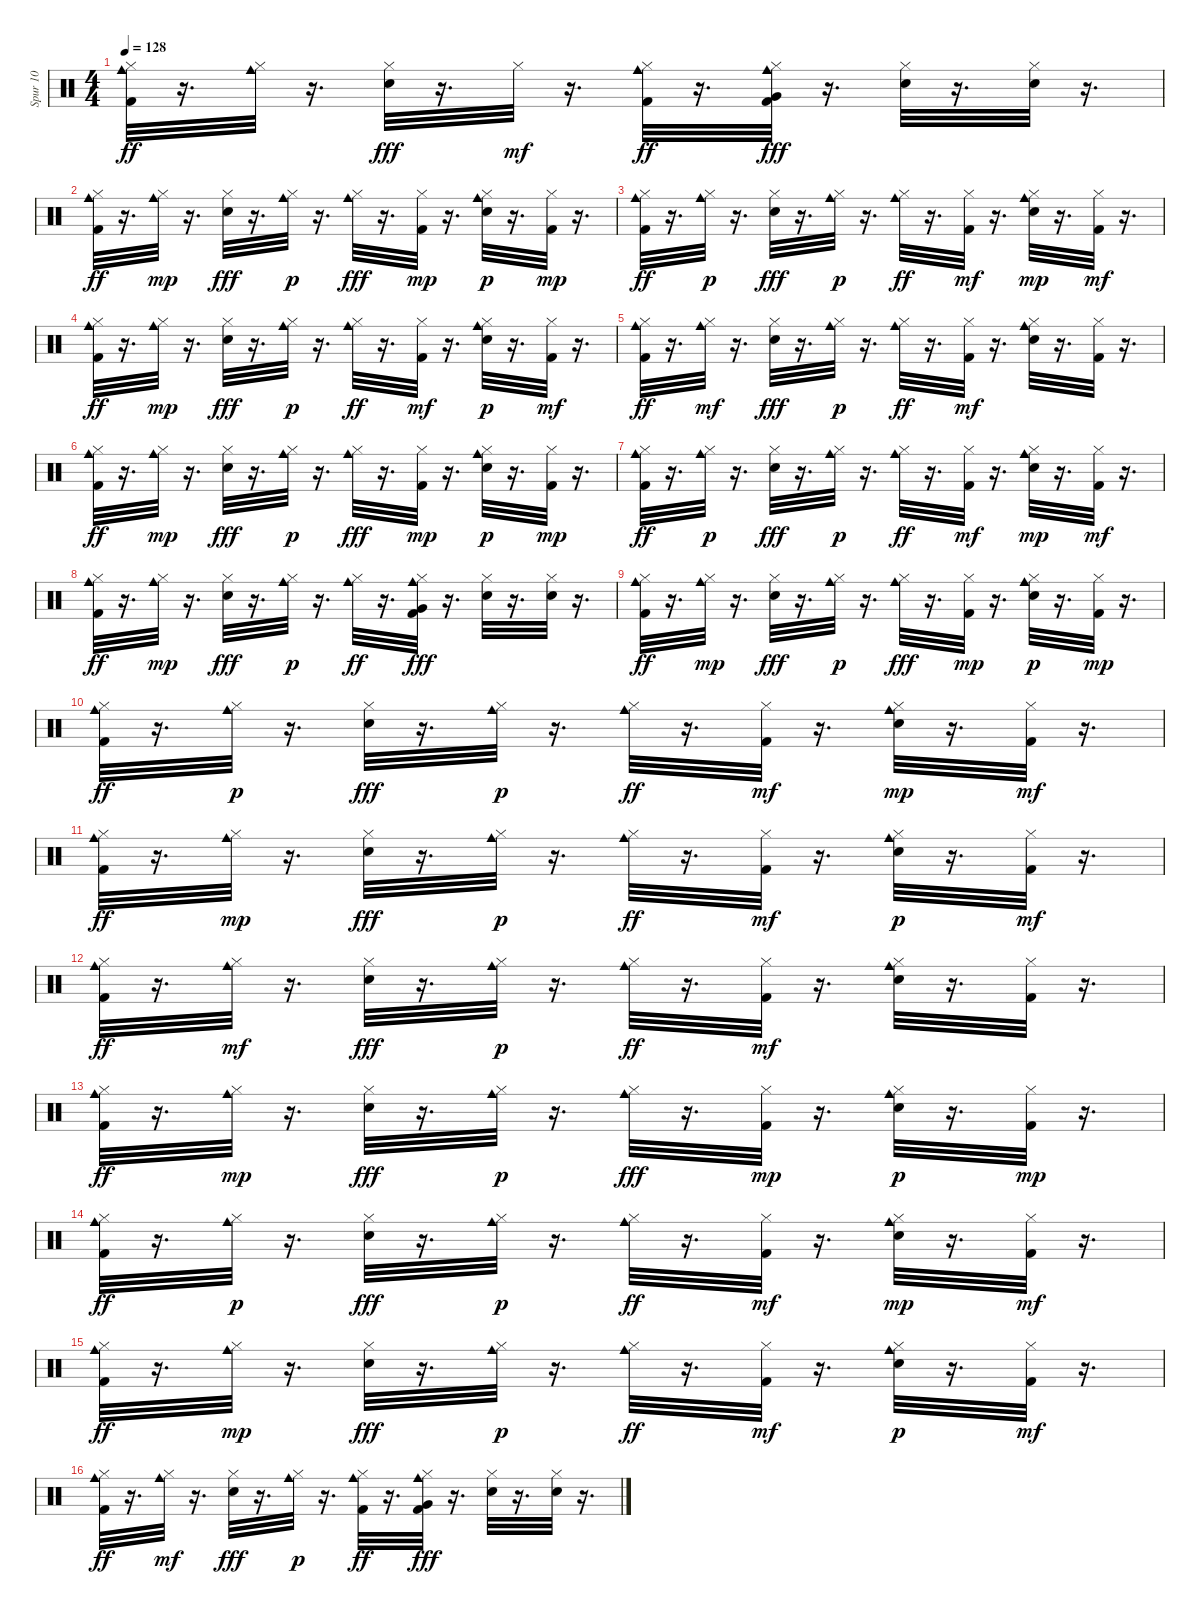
\track ("Spur 10" "Spur 10") {instrument percussion}
\staff {score}
\articulation defaults
\ts (4 4)
\tempo 128
\clef neutral
\ks c
("Kick (hit) 2" "Hi-Hat (closed)" "Cowbell medium (hit)").32{dy ff} r.16{d} ("Hi-Hat (closed)" "Cowbell medium (hit)").32 r.16{d} ("Electric Snare (hit)" "Hi-Hat (closed)").32{dy fff} r.16{d} "Hi-Hat (closed)".32{dy mf} r.16{d} ("Kick (hit) 2" "Hi-Hat (closed)" "Cowbell medium (hit)").32{dy ff} r.16{d} ("Kick (hit) 2" "Hi-Hat (closed)" "Cowbell medium (hit)" "Very Low Tom (hit)").32{dy fff} r.16{d} ("Electric Snare (hit)" "Hi-Hat (closed)").32 r.16{d} ("Hi-Hat (closed)" "Electric Snare (hit)").32 r.16{d} |
("Kick (hit) 2" "Hi-Hat (closed)" "Cowbell medium (hit)").32{dy ff} r.16{d} ("Hi-Hat (closed)" "Cowbell medium (hit)").32{dy mp} r.16{d} ("Electric Snare (hit)" "Hi-Hat (closed)").32{dy fff} r.16{d} ("Hi-Hat (closed)" "Cowbell medium (hit)").32{dy p} r.16{d} ("Hi-Hat (closed)" "Cowbell medium (hit)").32{dy fff} r.16{d} ("Kick (hit) 2" "Hi-Hat (closed)").32{dy mp} r.16{d} ("Electric Snare (hit)" "Hi-Hat (closed)" "Cowbell medium (hit)").32{dy p} r.16{d} ("Kick (hit) 2" "Hi-Hat (closed)").32{dy mp} r.16{d} |
("Kick (hit) 2" "Hi-Hat (closed)" "Cowbell medium (hit)").32{dy ff} r.16{d} ("Hi-Hat (closed)" "Cowbell medium (hit)").32{dy p} r.16{d} ("Electric Snare (hit)" "Hi-Hat (closed)").32{dy fff} r.16{d} ("Hi-Hat (closed)" "Cowbell medium (hit)").32{dy p} r.16{d} ("Hi-Hat (closed)" "Cowbell medium (hit)").32{dy ff} r.16{d} ("Kick (hit) 2" "Hi-Hat (closed)").32{dy mf} r.16{d} ("Electric Snare (hit)" "Hi-Hat (closed)" "Cowbell medium (hit)").32{dy mp} r.16{d} ("Kick (hit) 2" "Hi-Hat (closed)").32{dy mf} r.16{d} |
("Kick (hit) 2" "Hi-Hat (closed)" "Cowbell medium (hit)").32{dy ff} r.16{d} ("Hi-Hat (closed)" "Cowbell medium (hit)").32{dy mp} r.16{d} ("Electric Snare (hit)" "Hi-Hat (closed)").32{dy fff} r.16{d} ("Hi-Hat (closed)" "Cowbell medium (hit)").32{dy p} r.16{d} ("Hi-Hat (closed)" "Cowbell medium (hit)").32{dy ff} r.16{d} ("Kick (hit) 2" "Hi-Hat (closed)").32{dy mf} r.16{d} ("Electric Snare (hit)" "Hi-Hat (closed)" "Cowbell medium (hit)").32{dy p} r.16{d} ("Kick (hit) 2" "Hi-Hat (closed)").32{dy mf} r.16{d} |
("Kick (hit) 2" "Hi-Hat (closed)" "Cowbell medium (hit)").32{dy ff} r.16{d} ("Hi-Hat (closed)" "Cowbell medium (hit)").32{dy mf} r.16{d} ("Electric Snare (hit)" "Hi-Hat (closed)").32{dy fff} r.16{d} ("Hi-Hat (closed)" "Cowbell medium (hit)").32{dy p} r.16{d} ("Hi-Hat (closed)" "Cowbell medium (hit)").32{dy ff} r.16{d} ("Kick (hit) 2" "Hi-Hat (closed)").32{dy mf} r.16{d} ("Electric Snare (hit)" "Hi-Hat (closed)" "Cowbell medium (hit)").32 r.16{d} ("Kick (hit) 2" "Hi-Hat (closed)").32 r.16{d} |
("Kick (hit) 2" "Hi-Hat (closed)" "Cowbell medium (hit)").32{dy ff} r.16{d} ("Hi-Hat (closed)" "Cowbell medium (hit)").32{dy mp} r.16{d} ("Electric Snare (hit)" "Hi-Hat (closed)").32{dy fff} r.16{d} ("Hi-Hat (closed)" "Cowbell medium (hit)").32{dy p} r.16{d} ("Hi-Hat (closed)" "Cowbell medium (hit)").32{dy fff} r.16{d} ("Kick (hit) 2" "Hi-Hat (closed)").32{dy mp} r.16{d} ("Electric Snare (hit)" "Hi-Hat (closed)" "Cowbell medium (hit)").32{dy p} r.16{d} ("Kick (hit) 2" "Hi-Hat (closed)").32{dy mp} r.16{d} |
("Kick (hit) 2" "Hi-Hat (closed)" "Cowbell medium (hit)").32{dy ff} r.16{d} ("Hi-Hat (closed)" "Cowbell medium (hit)").32{dy p} r.16{d} ("Electric Snare (hit)" "Hi-Hat (closed)").32{dy fff} r.16{d} ("Hi-Hat (closed)" "Cowbell medium (hit)").32{dy p} r.16{d} ("Hi-Hat (closed)" "Cowbell medium (hit)").32{dy ff} r.16{d} ("Kick (hit) 2" "Hi-Hat (closed)").32{dy mf} r.16{d} ("Electric Snare (hit)" "Hi-Hat (closed)" "Cowbell medium (hit)").32{dy mp} r.16{d} ("Kick (hit) 2" "Hi-Hat (closed)").32{dy mf} r.16{d} |
("Kick (hit) 2" "Hi-Hat (closed)" "Cowbell medium (hit)").32{dy ff} r.16{d} ("Hi-Hat (closed)" "Cowbell medium (hit)").32{dy mp} r.16{d} ("Electric Snare (hit)" "Hi-Hat (closed)").32{dy fff} r.16{d} ("Hi-Hat (closed)" "Cowbell medium (hit)").32{dy p} r.16{d} ("Hi-Hat (closed)" "Cowbell medium (hit)").32{dy ff} r.16{d} ("Kick (hit) 2" "Hi-Hat (closed)" "Cowbell medium (hit)" "Very Low Tom (hit)").32{dy fff} r.16{d} ("Electric Snare (hit)" "Hi-Hat (closed)").32 r.16{d} ("Hi-Hat (closed)" "Electric Snare (hit)").32 r.16{d} |
("Kick (hit) 2" "Hi-Hat (closed)" "Cowbell medium (hit)").32{dy ff} r.16{d} ("Hi-Hat (closed)" "Cowbell medium (hit)").32{dy mp} r.16{d} ("Electric Snare (hit)" "Hi-Hat (closed)").32{dy fff} r.16{d} ("Hi-Hat (closed)" "Cowbell medium (hit)").32{dy p} r.16{d} ("Hi-Hat (closed)" "Cowbell medium (hit)").32{dy fff} r.16{d} ("Kick (hit) 2" "Hi-Hat (closed)").32{dy mp} r.16{d} ("Electric Snare (hit)" "Hi-Hat (closed)" "Cowbell medium (hit)").32{dy p} r.16{d} ("Kick (hit) 2" "Hi-Hat (closed)").32{dy mp} r.16{d} |
("Kick (hit) 2" "Hi-Hat (closed)" "Cowbell medium (hit)").32{dy ff} r.16{d} ("Hi-Hat (closed)" "Cowbell medium (hit)").32{dy p} r.16{d} ("Electric Snare (hit)" "Hi-Hat (closed)").32{dy fff} r.16{d} ("Hi-Hat (closed)" "Cowbell medium (hit)").32{dy p} r.16{d} ("Hi-Hat (closed)" "Cowbell medium (hit)").32{dy ff} r.16{d} ("Kick (hit) 2" "Hi-Hat (closed)").32{dy mf} r.16{d} ("Electric Snare (hit)" "Hi-Hat (closed)" "Cowbell medium (hit)").32{dy mp} r.16{d} ("Kick (hit) 2" "Hi-Hat (closed)").32{dy mf} r.16{d} |
("Kick (hit) 2" "Hi-Hat (closed)" "Cowbell medium (hit)").32{dy ff} r.16{d} ("Hi-Hat (closed)" "Cowbell medium (hit)").32{dy mp} r.16{d} ("Electric Snare (hit)" "Hi-Hat (closed)").32{dy fff} r.16{d} ("Hi-Hat (closed)" "Cowbell medium (hit)").32{dy p} r.16{d} ("Hi-Hat (closed)" "Cowbell medium (hit)").32{dy ff} r.16{d} ("Kick (hit) 2" "Hi-Hat (closed)").32{dy mf} r.16{d} ("Electric Snare (hit)" "Hi-Hat (closed)" "Cowbell medium (hit)").32{dy p} r.16{d} ("Kick (hit) 2" "Hi-Hat (closed)").32{dy mf} r.16{d} |
("Kick (hit) 2" "Hi-Hat (closed)" "Cowbell medium (hit)").32{dy ff} r.16{d} ("Hi-Hat (closed)" "Cowbell medium (hit)").32{dy mf} r.16{d} ("Electric Snare (hit)" "Hi-Hat (closed)").32{dy fff} r.16{d} ("Hi-Hat (closed)" "Cowbell medium (hit)").32{dy p} r.16{d} ("Hi-Hat (closed)" "Cowbell medium (hit)").32{dy ff} r.16{d} ("Kick (hit) 2" "Hi-Hat (closed)").32{dy mf} r.16{d} ("Electric Snare (hit)" "Hi-Hat (closed)" "Cowbell medium (hit)").32 r.16{d} ("Kick (hit) 2" "Hi-Hat (closed)").32 r.16{d} |
("Kick (hit) 2" "Hi-Hat (closed)" "Cowbell medium (hit)").32{dy ff} r.16{d} ("Hi-Hat (closed)" "Cowbell medium (hit)").32{dy mp} r.16{d} ("Electric Snare (hit)" "Hi-Hat (closed)").32{dy fff} r.16{d} ("Hi-Hat (closed)" "Cowbell medium (hit)").32{dy p} r.16{d} ("Hi-Hat (closed)" "Cowbell medium (hit)").32{dy fff} r.16{d} ("Kick (hit) 2" "Hi-Hat (closed)").32{dy mp} r.16{d} ("Electric Snare (hit)" "Hi-Hat (closed)" "Cowbell medium (hit)").32{dy p} r.16{d} ("Kick (hit) 2" "Hi-Hat (closed)").32{dy mp} r.16{d} |
("Kick (hit) 2" "Hi-Hat (closed)" "Cowbell medium (hit)").32{dy ff} r.16{d} ("Hi-Hat (closed)" "Cowbell medium (hit)").32{dy p} r.16{d} ("Electric Snare (hit)" "Hi-Hat (closed)").32{dy fff} r.16{d} ("Hi-Hat (closed)" "Cowbell medium (hit)").32{dy p} r.16{d} ("Hi-Hat (closed)" "Cowbell medium (hit)").32{dy ff} r.16{d} ("Kick (hit) 2" "Hi-Hat (closed)").32{dy mf} r.16{d} ("Electric Snare (hit)" "Hi-Hat (closed)" "Cowbell medium (hit)").32{dy mp} r.16{d} ("Kick (hit) 2" "Hi-Hat (closed)").32{dy mf} r.16{d} |
("Kick (hit) 2" "Hi-Hat (closed)" "Cowbell medium (hit)").32{dy ff} r.16{d} ("Hi-Hat (closed)" "Cowbell medium (hit)").32{dy mp} r.16{d} ("Electric Snare (hit)" "Hi-Hat (closed)").32{dy fff} r.16{d} ("Hi-Hat (closed)" "Cowbell medium (hit)").32{dy p} r.16{d} ("Hi-Hat (closed)" "Cowbell medium (hit)").32{dy ff} r.16{d} ("Kick (hit) 2" "Hi-Hat (closed)").32{dy mf} r.16{d} ("Electric Snare (hit)" "Hi-Hat (closed)" "Cowbell medium (hit)").32{dy p} r.16{d} ("Kick (hit) 2" "Hi-Hat (closed)").32{dy mf} r.16{d} |
("Kick (hit) 2" "Hi-Hat (closed)" "Cowbell medium (hit)").32{dy ff} r.16{d} ("Hi-Hat (closed)" "Cowbell medium (hit)").32{dy mf} r.16{d} ("Electric Snare (hit)" "Hi-Hat (closed)").32{dy fff} r.16{d} ("Hi-Hat (closed)" "Cowbell medium (hit)").32{dy p} r.16{d} ("Kick (hit) 2" "Hi-Hat (closed)" "Cowbell medium (hit)").32{dy ff} r.16{d} ("Kick (hit) 2" "Hi-Hat (closed)" "Cowbell medium (hit)" "Very Low Tom (hit)").32{dy fff} r.16{d} ("Electric Snare (hit)" "Hi-Hat (closed)").32 r.16{d} ("Hi-Hat (closed)" "Electric Snare (hit)").32 r.16{d}
